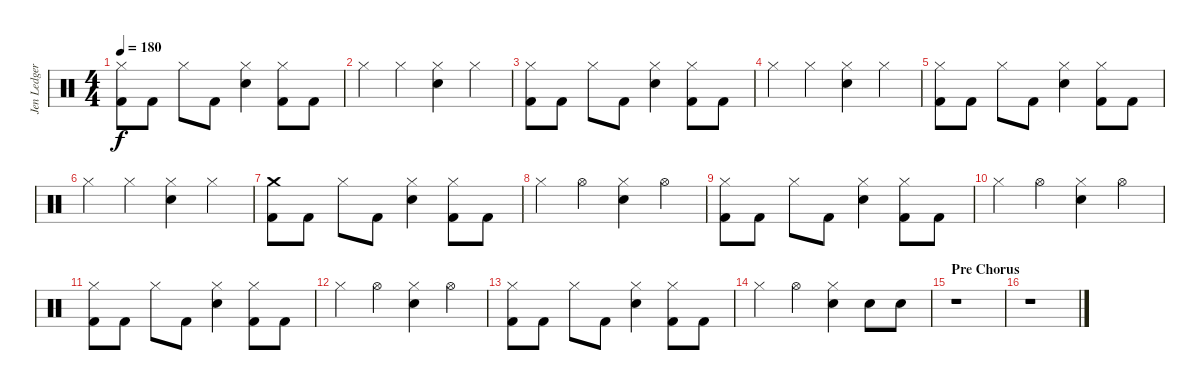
\track ("Jen Ledger" "Jen Ledger") {instrument percussion}
\staff {score}
\articulation defaults
\ts (4 4)
\tempo 180
\clef neutral
\ks c
("Hi-Hat (closed)" "Kick (hit) 2").8{dy f} "Kick (hit) 2".8 "Hi-Hat (closed)".8 "Kick (hit) 2".8 ("Hi-Hat (closed)" "Electric Snare (hit)").4 ("Hi-Hat (closed)" "Kick (hit) 2").8 "Kick (hit) 2".8 |
"Hi-Hat (closed)".4 "Hi-Hat (closed)".4 ("Hi-Hat (closed)" "Electric Snare (hit)").4 "Hi-Hat (closed)".4 |
("Hi-Hat (closed)" "Kick (hit) 2").8 "Kick (hit) 2".8 "Hi-Hat (closed)".8 "Kick (hit) 2".8 ("Hi-Hat (closed)" "Electric Snare (hit)").4 ("Hi-Hat (closed)" "Kick (hit) 2").8 "Kick (hit) 2".8 |
"Hi-Hat (closed)".4 "Hi-Hat (closed)".4 ("Hi-Hat (closed)" "Electric Snare (hit)").4 "Hi-Hat (closed)".4 |
("Hi-Hat (closed)" "Kick (hit) 2").8 "Kick (hit) 2".8 "Hi-Hat (closed)".8 "Kick (hit) 2".8 ("Hi-Hat (closed)" "Electric Snare (hit)").4 ("Hi-Hat (closed)" "Kick (hit) 2").8 "Kick (hit) 2".8 |
"Hi-Hat (closed)".4 "Hi-Hat (closed)".4 ("Hi-Hat (closed)" "Electric Snare (hit)").4 "Hi-Hat (closed)".4 |
("Crash medium (hit)" "Kick (hit) 2").8 "Kick (hit) 2".8 "Hi-Hat (closed)".8 "Kick (hit) 2".8 ("Hi-Hat (closed)" "Electric Snare (hit)").4 ("Hi-Hat (closed)" "Kick (hit) 2").8 "Kick (hit) 2".8 |
"Hi-Hat (closed)".4 "Hi-Hat (open)".4 ("Hi-Hat (closed)" "Electric Snare (hit)").4 "Hi-Hat (open)".4 |
("Hi-Hat (closed)" "Kick (hit) 2").8 "Kick (hit) 2".8 "Hi-Hat (closed)".8 "Kick (hit) 2".8 ("Hi-Hat (closed)" "Electric Snare (hit)").4 ("Hi-Hat (closed)" "Kick (hit) 2").8 "Kick (hit) 2".8 |
"Hi-Hat (closed)".4 "Hi-Hat (open)".4 ("Hi-Hat (closed)" "Electric Snare (hit)").4 "Hi-Hat (open)".4 |
("Hi-Hat (closed)" "Kick (hit) 2").8 "Kick (hit) 2".8 "Hi-Hat (closed)".8 "Kick (hit) 2".8 ("Hi-Hat (closed)" "Electric Snare (hit)").4 ("Hi-Hat (closed)" "Kick (hit) 2").8 "Kick (hit) 2".8 |
"Hi-Hat (closed)".4 "Hi-Hat (open)".4 ("Hi-Hat (closed)" "Electric Snare (hit)").4 "Hi-Hat (open)".4 |
("Hi-Hat (closed)" "Kick (hit) 2").8 "Kick (hit) 2".8 "Hi-Hat (closed)".8 "Kick (hit) 2".8 ("Hi-Hat (closed)" "Electric Snare (hit)").4 ("Hi-Hat (closed)" "Kick (hit) 2").8 "Kick (hit) 2".8 |
"Hi-Hat (closed)".4 "Hi-Hat (open)".4 ("Hi-Hat (closed)" "Electric Snare (hit)").4 "Electric Snare (hit)".8 "Electric Snare (hit)".8 |
\section ("" "Pre Chorus ")
r.1 |
r.1
